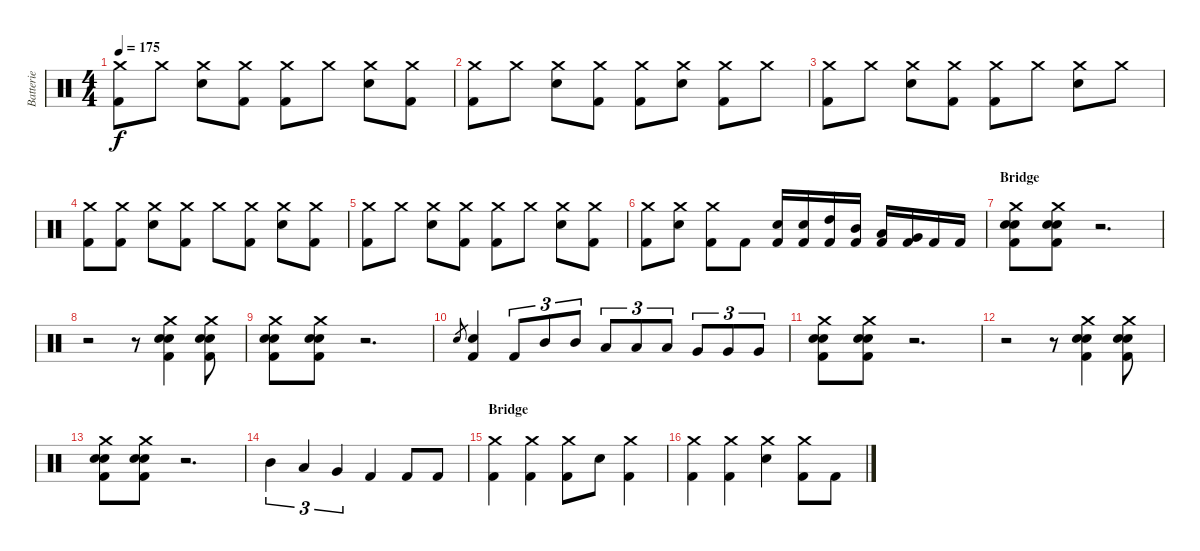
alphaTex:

\track ("Batterie" "Batterie") {instrument percussion}
\staff {score}
\articulation defaults
\ts (4 4)
\tempo 175
\clef neutral
\ks c
("Crash medium (hit)" "Kick (hit) 2").8{dy f} "Crash medium (hit)".8 ("Crash medium (hit)" "Electric Snare (hit)").8 ("Crash medium (hit)" "Kick (hit) 2").8 ("Crash medium (hit)" "Kick (hit) 2").8 "Crash medium (hit)".8 ("Crash medium (hit)" "Electric Snare (hit)").8 ("Crash medium (hit)" "Kick (hit) 2").8 |
("Crash medium (hit)" "Kick (hit) 2").8 "Crash medium (hit)".8 ("Crash medium (hit)" "Electric Snare (hit)").8 ("Crash medium (hit)" "Kick (hit) 2").8 ("Crash medium (hit)" "Kick (hit) 2").8 ("Crash medium (hit)" "Electric Snare (hit)").8 ("Crash medium (hit)" "Kick (hit) 2").8 "Crash medium (hit)".8 |
("Crash medium (hit)" "Kick (hit) 2").8 "Crash medium (hit)".8 ("Crash medium (hit)" "Electric Snare (hit)").8 ("Crash medium (hit)" "Kick (hit) 2").8 ("Crash medium (hit)" "Kick (hit) 2").8 "Crash medium (hit)".8 ("Crash medium (hit)" "Electric Snare (hit)").8 "Crash medium (hit)".8 |
("Crash medium (hit)" "Kick (hit) 2").8 ("Crash medium (hit)" "Kick (hit) 2").8 ("Crash medium (hit)" "Electric Snare (hit)").8 ("Crash medium (hit)" "Kick (hit) 2").8 "Crash medium (hit)".8 ("Crash medium (hit)" "Kick (hit) 2").8 ("Crash medium (hit)" "Electric Snare (hit)").8 ("Crash medium (hit)" "Kick (hit) 2").8 |
("Crash medium (hit)" "Kick (hit) 2").8 "Crash medium (hit)".8 ("Crash medium (hit)" "Electric Snare (hit)").8 ("Crash medium (hit)" "Kick (hit) 2").8 ("Crash medium (hit)" "Kick (hit) 2").8 "Crash medium (hit)".8 ("Crash medium (hit)" "Electric Snare (hit)").8 ("Crash medium (hit)" "Kick (hit) 2").8 |
("Crash medium (hit)" "Kick (hit) 2").8 ("Crash medium (hit)" "Electric Snare (hit)").8 ("Crash medium (hit)" "Kick (hit) 2").8 "Kick (hit) 2".8 ("Electric Snare (hit)" "Kick (hit) 2").16 ("Electric Snare (hit)" "Kick (hit) 2").16 ("High Tom (hit)" "Kick (hit) 2").16 ("Mid Tom (hit)" "Kick (hit) 2").16 ("Low Tom (hit)" "Kick (hit) 2").16 ("Very Low Tom (hit)" "Kick (hit) 2").16 "Kick (hit) 2".16 "Kick (hit) 2".16 |
\section ("" "Bridge")
("Crash medium (hit)" "Electric Snare (hit)" "Electric Snare (hit)" "Kick (hit) 2").8 ("Crash medium (hit)" "Electric Snare (hit)" "Electric Snare (hit)" "Kick (hit) 2").8 r.2{d} |
r.2 r.8 ("Crash medium (hit)" "Electric Snare (hit)" "Electric Snare (hit)" "Kick (hit) 2").4 ("Crash medium (hit)" "Electric Snare (hit)" "Electric Snare (hit)" "Kick (hit) 2").8 |
("Crash medium (hit)" "Electric Snare (hit)" "Electric Snare (hit)" "Kick (hit) 2").8 ("Crash medium (hit)" "Electric Snare (hit)" "Electric Snare (hit)" "Kick (hit) 2").8 r.2{d} |
"Electric Snare (hit)".8{gr} ("Electric Snare (hit)" "Kick (hit) 2").4 "Kick (hit) 2".8{tu (3 2)} "Mid Tom (hit)".8{tu (3 2)} "Mid Tom (hit)".8{tu (3 2)} "Low Tom (hit)".8{tu (3 2)} "Low Tom (hit)".8{tu (3 2)} "Low Tom (hit)".8{tu (3 2)} "Very Low Tom (hit)".8{tu (3 2)} "Very Low Tom (hit)".8{tu (3 2)} "Very Low Tom (hit)".8{tu (3 2)} |
("Crash medium (hit)" "Electric Snare (hit)" "Electric Snare (hit)" "Kick (hit) 2").8 ("Crash medium (hit)" "Electric Snare (hit)" "Electric Snare (hit)" "Kick (hit) 2").8 r.2{d} |
r.2 r.8 ("Crash medium (hit)" "Electric Snare (hit)" "Electric Snare (hit)" "Kick (hit) 2").4 ("Crash medium (hit)" "Electric Snare (hit)" "Electric Snare (hit)" "Kick (hit) 2").8 |
("Crash medium (hit)" "Electric Snare (hit)" "Electric Snare (hit)" "Kick (hit) 2").8 ("Crash medium (hit)" "Electric Snare (hit)" "Electric Snare (hit)" "Kick (hit) 2").8 r.2{d} |
"Mid Tom (hit)".4{tu (3 2)} "Low Tom (hit)".4{tu (3 2)} "Very Low Tom (hit)".4{tu (3 2)} "Kick (hit) 2".4 "Kick (hit) 2".8 "Kick (hit) 2".8 |
\section ("" "Bridge")
("Crash medium (hit)" "Kick (hit) 2").4 ("Crash medium (hit)" "Kick (hit) 2").4 ("Crash medium (hit)" "Kick (hit) 2").8 "Electric Snare (hit)".8 ("Crash medium (hit)" "Kick (hit) 2").4 |
("Crash medium (hit)" "Kick (hit) 2").4 ("Crash medium (hit)" "Kick (hit) 2").4 ("Crash medium (hit)" "Electric Snare (hit)").4 ("Crash medium (hit)" "Kick (hit) 2").8 "Kick (hit) 2".8
